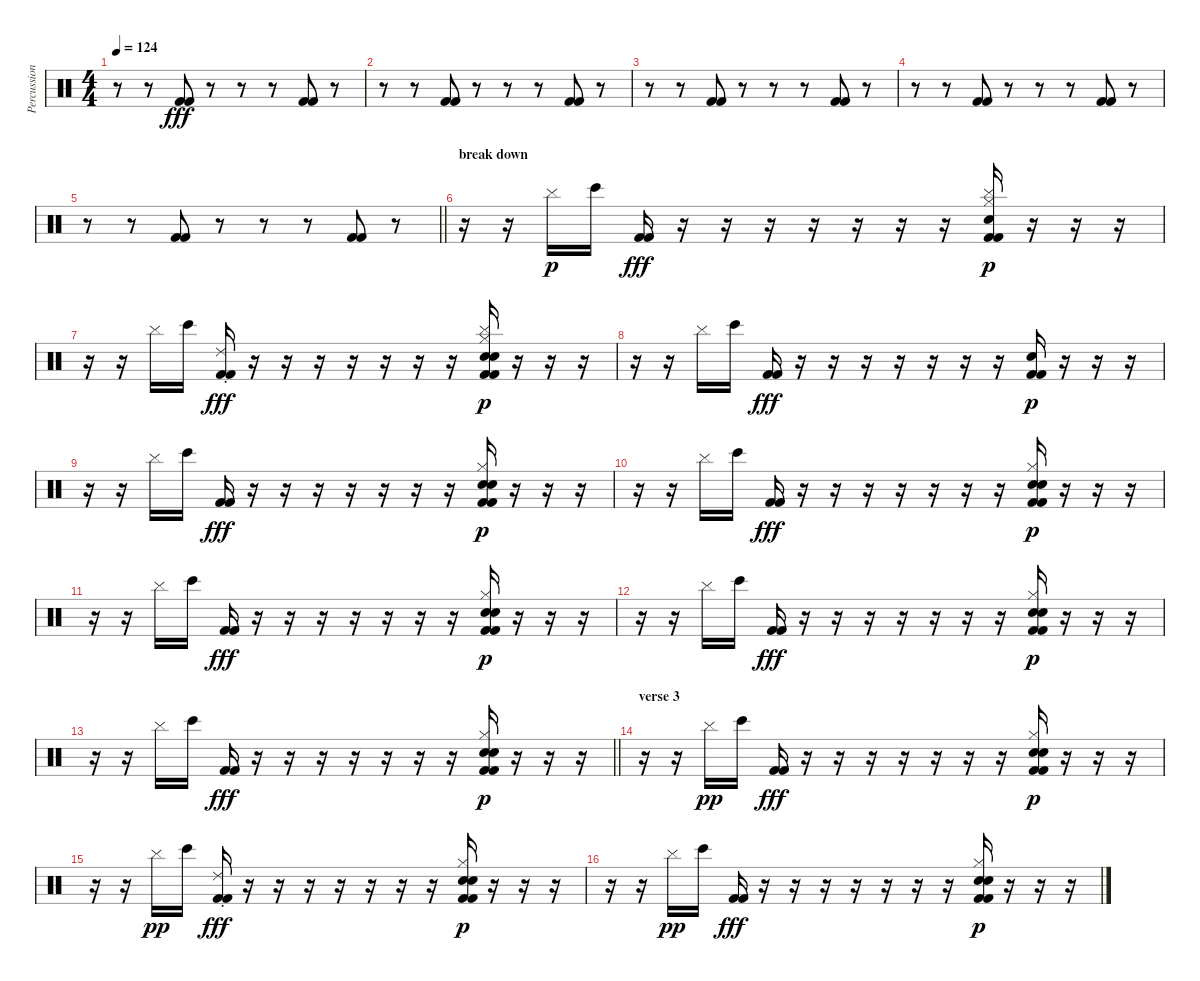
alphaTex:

\track ("Percussions" "Percussion") {instrument percussion}
\staff {score}
\articulation defaults
\ts (4 4)
\tempo 124
\clef neutral
\ks c
r.8{dy fff} r.8 ("Kick (hit) 2" "Kick (hit) 2").8 r.8 r.8 r.8 ("Kick (hit) 2" "Kick (hit) 2").8 r.8 |
r.8 r.8 ("Kick (hit) 2" "Kick (hit) 2").8 r.8 r.8 r.8 ("Kick (hit) 2" "Kick (hit) 2").8 r.8 |
r.8 r.8 ("Kick (hit) 2" "Kick (hit) 2").8 r.8 r.8 r.8 ("Kick (hit) 2" "Kick (hit) 2").8 r.8 |
r.8 r.8 ("Kick (hit) 2" "Kick (hit) 2").8 r.8 r.8 r.8 ("Kick (hit) 2" "Kick (hit) 2").8 r.8 |
\barLineRight lightlight
r.8 r.8 ("Kick (hit) 2" "Kick (hit) 2").8 r.8 r.8 r.8 ("Kick (hit) 2" "Kick (hit) 2").8 r.8 |
\section ("" "break down")
r.16 r.16 "Cymbal (hit)".16{dy p} "Bongo High (hit)".16 ("Kick (hit) 2" "Kick (hit) 2").16{dy fff} r.16 r.16 r.16 r.16 r.16 r.16 r.16 ("Hi-Hat (closed)" "Hand Clap (hit)" "Cymbal (hit)" "Kick (hit) 2" "Kick (hit) 2").16{dy p} r.16 r.16 r.16 |
r.16 r.16 "Cymbal (hit)".16 "Bongo High (hit)".16 ("Ride (choke) 2" "Kick (hit) 2" "Kick (hit) 2").16{dy fff} r.16 r.16 r.16 r.16 r.16 r.16 r.16 ("Snare (hit) 2" "Hi-Hat (closed)" "Hand Clap (hit)" "Cymbal (hit)" "Kick (hit) 2" "Kick (hit) 2").16{dy p} r.16 r.16 r.16 |
r.16 r.16 "Cymbal (hit)".16 "Bongo High (hit)".16 ("Kick (hit) 2" "Kick (hit) 2").16{dy fff} r.16 r.16 r.16 r.16 r.16 r.16 r.16 ("Hand Clap (hit)" "Kick (hit) 2" "Kick (hit) 2").16{dy p} r.16 r.16 r.16 |
r.16 r.16 "Cymbal (hit)".16 "Bongo High (hit)".16 ("Kick (hit) 2" "Kick (hit) 2").16{dy fff} r.16 r.16 r.16 r.16 r.16 r.16 r.16 ("Snare (hit) 2" "Hi-Hat (closed)" "Hand Clap (hit)" "Kick (hit) 2" "Kick (hit) 2").16{dy p} r.16 r.16 r.16 |
r.16 r.16 "Cymbal (hit)".16 "Bongo High (hit)".16 ("Kick (hit) 2" "Kick (hit) 2").16{dy fff} r.16 r.16 r.16 r.16 r.16 r.16 r.16 ("Snare (hit) 2" "Hi-Hat (closed)" "Hand Clap (hit)" "Kick (hit) 2" "Kick (hit) 2").16{dy p} r.16 r.16 r.16 |
r.16 r.16 "Cymbal (hit)".16 "Bongo High (hit)".16 ("Kick (hit) 2" "Kick (hit) 2").16{dy fff} r.16 r.16 r.16 r.16 r.16 r.16 r.16 ("Snare (hit) 2" "Hi-Hat (closed)" "Hand Clap (hit)" "Kick (hit) 2" "Kick (hit) 2").16{dy p} r.16 r.16 r.16 |
r.16 r.16 "Cymbal (hit)".16 "Bongo High (hit)".16 ("Kick (hit) 2" "Kick (hit) 2").16{dy fff} r.16 r.16 r.16 r.16 r.16 r.16 r.16 ("Snare (hit) 2" "Hi-Hat (closed)" "Hand Clap (hit)" "Kick (hit) 2" "Kick (hit) 2").16{dy p} r.16 r.16 r.16 |
\barLineRight lightlight
r.16 r.16 "Cymbal (hit)".16 "Bongo High (hit)".16 ("Kick (hit) 2" "Kick (hit) 2").16{dy fff} r.16 r.16 r.16 r.16 r.16 r.16 r.16 ("Snare (hit) 2" "Hi-Hat (closed)" "Hand Clap (hit)" "Kick (hit) 2" "Kick (hit) 2").16{dy p} r.16 r.16 r.16 |
\section ("" "verse 3")
r.16 r.16 "Cymbal (hit)".16{dy pp} "Bongo High (hit)".16 ("Kick (hit) 2" "Kick (hit) 2").16{dy fff} r.16 r.16 r.16 r.16 r.16 r.16 r.16 ("Snare (hit) 2" "Hi-Hat (closed)" "Hand Clap (hit)" "Kick (hit) 2" "Kick (hit) 2").16{dy p} r.16 r.16 r.16 |
r.16 r.16 "Cymbal (hit)".16{dy pp} "Bongo High (hit)".16 ("Ride (choke) 2" "Kick (hit) 2" "Kick (hit) 2").16{dy fff} r.16 r.16 r.16 r.16 r.16 r.16 r.16 ("Snare (hit) 2" "Hi-Hat (closed)" "Hand Clap (hit)" "Kick (hit) 2" "Kick (hit) 2").16{dy p} r.16 r.16 r.16 |
r.16 r.16 "Cymbal (hit)".16{dy pp} "Bongo High (hit)".16 ("Kick (hit) 2" "Kick (hit) 2").16{dy fff} r.16 r.16 r.16 r.16 r.16 r.16 r.16 ("Snare (hit) 2" "Hi-Hat (closed)" "Hand Clap (hit)" "Kick (hit) 2" "Kick (hit) 2").16{dy p} r.16 r.16 r.16
